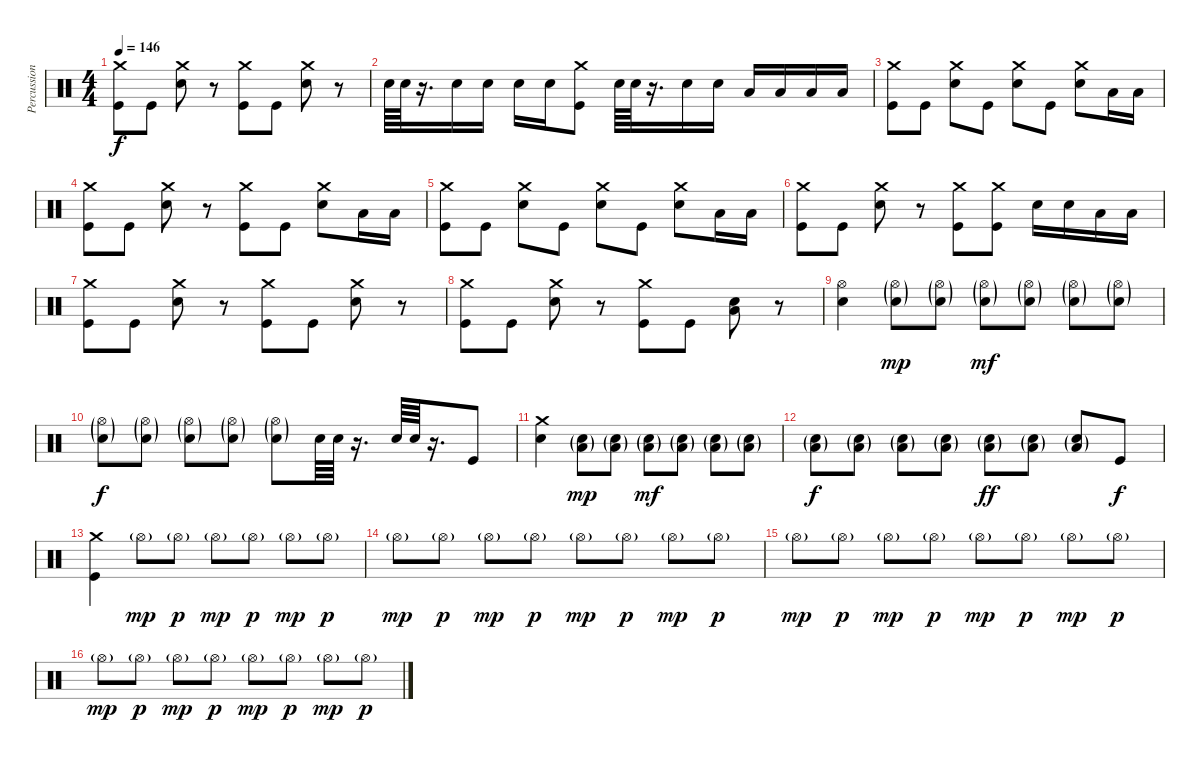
\track ("Percussion" "Percussion") {instrument percussion}
\staff {score}
\articulation defaults
\ts (4 4)
\tempo 146
\clef neutral
\ks c
("Crash medium (hit)" "Kick (hit)").8{dy f} "Kick (hit)".8 ("Crash medium (hit)" "Snare (hit) 2").8 r.8 ("Crash medium (hit)" "Kick (hit)").8 "Kick (hit)".8 ("Crash medium (hit)" "Snare (hit) 2").8 r.8 |
"Snare (hit) 2".64 "Snare (hit) 2".64 r.16{d} "Snare (hit) 2".16 "Snare (hit) 2".16 "Snare (hit) 2".16 "Snare (hit) 2".16 ("Crash medium (hit)" "Kick (hit)").8 "Snare (hit) 2".64 "Snare (hit) 2".64 r.16{d} "Snare (hit) 2".16 "Snare (hit) 2".16 "Low Tom (hit)".16 "Low Tom (hit)".16 "Low Floor Tom (hit)".16 "Low Floor Tom (hit)".16 |
("Crash medium (hit)" "Kick (hit)").8 "Kick (hit)".8 ("Crash medium (hit)" "Snare (hit) 2").8 "Kick (hit)".8 ("Crash medium (hit)" "Snare (hit) 2").8 "Kick (hit)".8 ("Crash medium (hit)" "Snare (hit) 2").8 "Low Floor Tom (hit)".16 "Low Floor Tom (hit)".16 |
("Crash medium (hit)" "Kick (hit)").8 "Kick (hit)".8 ("Crash medium (hit)" "Snare (hit) 2").8 r.8 ("Crash medium (hit)" "Kick (hit)").8 "Kick (hit)".8 ("Crash medium (hit)" "Snare (hit) 2").8 "Low Floor Tom (hit)".16 "Low Floor Tom (hit)".16 |
("Crash medium (hit)" "Kick (hit)").8 "Kick (hit)".8 ("Crash medium (hit)" "Snare (hit) 2").8 "Kick (hit)".8 ("Crash medium (hit)" "Snare (hit) 2").8 "Kick (hit)".8 ("Crash medium (hit)" "Snare (hit) 2").8 "Low Floor Tom (hit)".16 "Low Floor Tom (hit)".16 |
("Crash medium (hit)" "Kick (hit)").8 "Kick (hit)".8 ("Crash medium (hit)" "Snare (hit) 2").8 r.8 ("Crash medium (hit)" "Kick (hit)").8 ("Crash medium (hit)" "Kick (hit)").8 "Snare (hit) 2".16 "Snare (hit) 2".16 "Low Tom (hit)".16 "Low Floor Tom (hit)".16 |
("Crash medium (hit)" "Kick (hit)").8 "Kick (hit)".8 ("Crash medium (hit)" "Snare (hit) 2").8 r.8 ("Crash medium (hit)" "Kick (hit)").8 "Kick (hit)".8 ("Crash medium (hit)" "Snare (hit) 2").8 r.8 |
("Crash medium (hit)" "Kick (hit)").8 "Kick (hit)".8 ("Crash medium (hit)" "Snare (hit) 2").8 r.8 ("Crash medium (hit)" "Kick (hit)").8 "Kick (hit)".8 ("Low Floor Tom (hit)" "Snare (hit) 2").8 r.8 |
("Hi-Hat (open)" "Snare (hit) 2").4 ("Hi-Hat (open)"{g} "Snare (hit) 2"{g}).8{dy mp} ("Hi-Hat (open)"{g} "Snare (hit) 2"{g}).8 ("Hi-Hat (open)"{g} "Snare (hit) 2"{g}).8{dy mf} ("Hi-Hat (open)"{g} "Snare (hit) 2"{g}).8 ("Hi-Hat (open)"{g} "Snare (hit) 2"{g}).8 ("Hi-Hat (open)"{g} "Snare (hit) 2"{g}).8 |
("Hi-Hat (open)"{g} "Snare (hit) 2"{g}).8{dy f} ("Hi-Hat (open)"{g} "Snare (hit) 2"{g}).8 ("Hi-Hat (open)"{g} "Snare (hit) 2"{g}).8 ("Hi-Hat (open)"{g} "Snare (hit) 2"{g}).8 ("Hi-Hat (open)"{g} "Snare (hit) 2"{g}).8 "Snare (hit) 2".64 "Snare (hit) 2".64 r.16{d} "Snare (hit) 2".64 "Snare (hit) 2".64 r.16{d} "Kick (hit)".8 |
("Crash medium (hit)" "Snare (hit) 2").4 ("Low Floor Tom (hit)"{g} "Snare (hit) 2"{g}).8{dy mp} ("Low Floor Tom (hit)"{g} "Snare (hit) 2"{g}).8 ("Low Floor Tom (hit)"{g} "Snare (hit) 2"{g}).8{dy mf} ("Low Floor Tom (hit)"{g} "Snare (hit) 2"{g}).8 ("Low Floor Tom (hit)"{g} "Snare (hit) 2"{g}).8 ("Low Floor Tom (hit)"{g} "Snare (hit) 2"{g}).8 |
("Low Floor Tom (hit)"{g} "Snare (hit) 2"{g}).8{dy f} ("Low Floor Tom (hit)"{g} "Snare (hit) 2"{g}).8 ("Low Floor Tom (hit)"{g} "Snare (hit) 2"{g}).8 ("Low Floor Tom (hit)"{g} "Snare (hit) 2"{g}).8 ("Low Floor Tom (hit)"{g} "Snare (hit) 2"{g}).8{dy ff} ("Low Floor Tom (hit)"{g} "Snare (hit) 2"{g}).8 ("Low Floor Tom (hit)"{g} "Snare (hit) 2"{g}).8 "Kick (hit)".8{dy f} |
("Crash medium (hit)" "Kick (hit)").4 "Hi-Hat (open)"{g}.8{dy mp} "Hi-Hat (open)"{g}.8{dy p} "Hi-Hat (open)"{g}.8{dy mp} "Hi-Hat (open)"{g}.8{dy p} "Hi-Hat (open)"{g}.8{dy mp} "Hi-Hat (open)"{g}.8{dy p} |
"Hi-Hat (open)"{g}.8{dy mp} "Hi-Hat (open)"{g}.8{dy p} "Hi-Hat (open)"{g}.8{dy mp} "Hi-Hat (open)"{g}.8{dy p} "Hi-Hat (open)"{g}.8{dy mp} "Hi-Hat (open)"{g}.8{dy p} "Hi-Hat (open)"{g}.8{dy mp} "Hi-Hat (open)"{g}.8{dy p} |
"Hi-Hat (open)"{g}.8{dy mp} "Hi-Hat (open)"{g}.8{dy p} "Hi-Hat (open)"{g}.8{dy mp} "Hi-Hat (open)"{g}.8{dy p} "Hi-Hat (open)"{g}.8{dy mp} "Hi-Hat (open)"{g}.8{dy p} "Hi-Hat (open)"{g}.8{dy mp} "Hi-Hat (open)"{g}.8{dy p} |
"Hi-Hat (open)"{g}.8{dy mp} "Hi-Hat (open)"{g}.8{dy p} "Hi-Hat (open)"{g}.8{dy mp} "Hi-Hat (open)"{g}.8{dy p} "Hi-Hat (open)"{g}.8{dy mp} "Hi-Hat (open)"{g}.8{dy p} "Hi-Hat (open)"{g}.8{dy mp} "Hi-Hat (open)"{g}.8{dy p}
